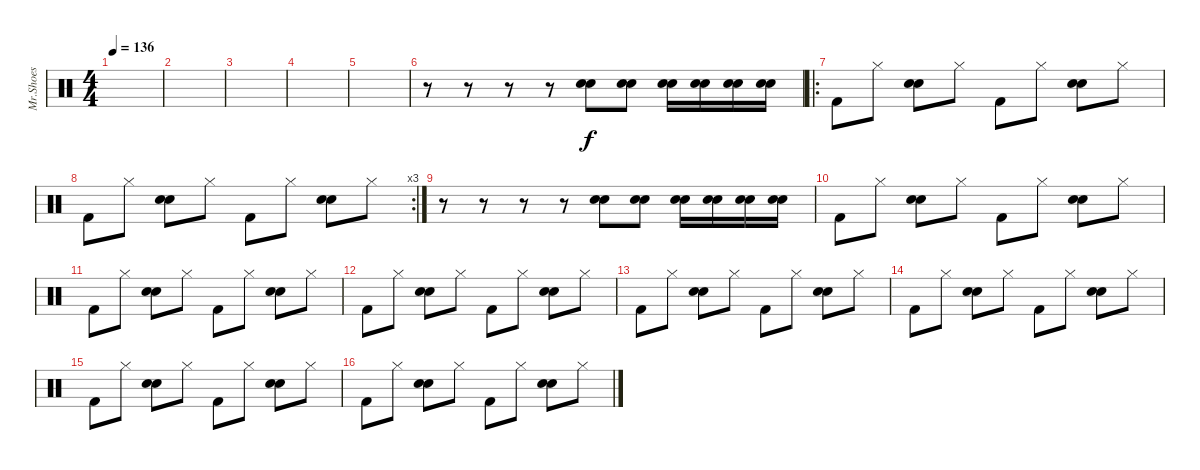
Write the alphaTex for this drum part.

\track ("Mr.Shoes" "Mr.Shoes") {instrument percussion}
\staff {score}
\articulation defaults
\ts (4 4)
\tempo 136
\clef neutral
\ks c
|
|
|
|
|
r.8 r.8 r.8 r.8 ("Electric Snare (hit)" "Snare (hit) 2").8 ("Electric Snare (hit)" "Snare (hit) 2").8 ("Electric Snare (hit)" "Snare (hit) 2").16 ("Electric Snare (hit)" "Snare (hit) 2").16 ("Electric Snare (hit)" "Snare (hit) 2").16 ("Electric Snare (hit)" "Snare (hit) 2").16 |
\ro "Kick (hit) 2".8 "Hi-Hat (closed)".8
("Electric Snare (hit)" "Snare (hit) 2").8 "Hi-Hat (closed)".8 "Kick (hit) 2".8 "Hi-Hat (closed)".8 ("Electric Snare (hit)" "Snare (hit) 2").8 "Hi-Hat (closed)".8 |
\rc 3 "Kick (hit) 2".8 "Hi-Hat (closed)".8
("Electric Snare (hit)" "Snare (hit) 2").8 "Hi-Hat (closed)".8 "Kick (hit) 2".8 "Hi-Hat (closed)".8 ("Electric Snare (hit)" "Snare (hit) 2").8 "Hi-Hat (closed)".8 |
r.8 r.8 r.8 r.8 ("Electric Snare (hit)" "Snare (hit) 2").8 ("Electric Snare (hit)" "Snare (hit) 2").8 ("Electric Snare (hit)" "Snare (hit) 2").16 ("Electric Snare (hit)" "Snare (hit) 2").16 ("Electric Snare (hit)" "Snare (hit) 2").16 ("Electric Snare (hit)" "Snare (hit) 2").16 |
"Kick (hit) 2".8 "Hi-Hat (closed)".8 ("Electric Snare (hit)" "Snare (hit) 2").8 "Hi-Hat (closed)".8 "Kick (hit) 2".8 "Hi-Hat (closed)".8 ("Electric Snare (hit)" "Snare (hit) 2").8 "Hi-Hat (closed)".8 |
"Kick (hit) 2".8 "Hi-Hat (closed)".8 ("Electric Snare (hit)" "Snare (hit) 2").8 "Hi-Hat (closed)".8 "Kick (hit) 2".8 "Hi-Hat (closed)".8 ("Electric Snare (hit)" "Snare (hit) 2").8 "Hi-Hat (closed)".8 |
"Kick (hit) 2".8 "Hi-Hat (closed)".8 ("Electric Snare (hit)" "Snare (hit) 2").8 "Hi-Hat (closed)".8 "Kick (hit) 2".8 "Hi-Hat (closed)".8 ("Electric Snare (hit)" "Snare (hit) 2").8 "Hi-Hat (closed)".8 |
"Kick (hit) 2".8 "Hi-Hat (closed)".8 ("Electric Snare (hit)" "Snare (hit) 2").8 "Hi-Hat (closed)".8 "Kick (hit) 2".8 "Hi-Hat (closed)".8 ("Electric Snare (hit)" "Snare (hit) 2").8 "Hi-Hat (closed)".8 |
"Kick (hit) 2".8 "Hi-Hat (closed)".8 ("Electric Snare (hit)" "Snare (hit) 2").8 "Hi-Hat (closed)".8 "Kick (hit) 2".8 "Hi-Hat (closed)".8 ("Electric Snare (hit)" "Snare (hit) 2").8 "Hi-Hat (closed)".8 |
"Kick (hit) 2".8 "Hi-Hat (closed)".8 ("Electric Snare (hit)" "Snare (hit) 2").8 "Hi-Hat (closed)".8 "Kick (hit) 2".8 "Hi-Hat (closed)".8 ("Electric Snare (hit)" "Snare (hit) 2").8 "Hi-Hat (closed)".8 |
"Kick (hit) 2".8 "Hi-Hat (closed)".8 ("Electric Snare (hit)" "Snare (hit) 2").8 "Hi-Hat (closed)".8 "Kick (hit) 2".8 "Hi-Hat (closed)".8 ("Electric Snare (hit)" "Snare (hit) 2").8 "Hi-Hat (closed)".8
